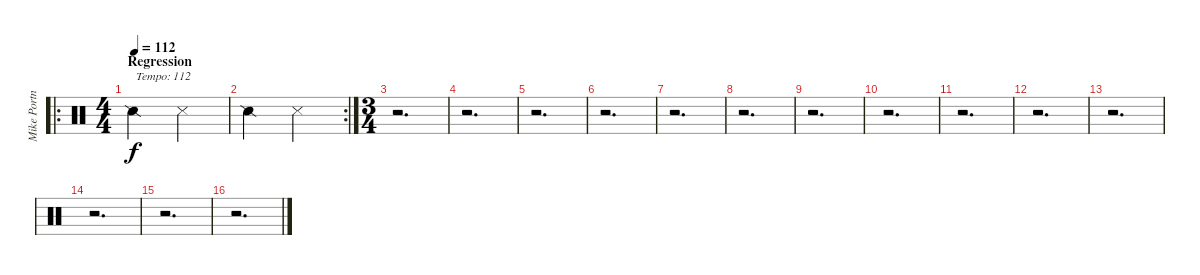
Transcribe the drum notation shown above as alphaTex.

\track ("Mike Portnoy - Drum" "Mike Portn") {instrument percussion}
\staff {score}
\articulation defaults
\ro
\ts (4 4)
\section ("" "Regression")
\tempo 112
\clef neutral
\ks c "Snare (side stick) 2".2{txt "Tempo: 112" dy f} "Metronome (hit)".2
|
\rc 2 "Snare (side stick) 2".2 "Metronome (hit)".2
|
\ts (3 4)
r.2{d} |
r.2{d} |
r.2{d} |
r.2{d} |
r.2{d} |
r.2{d} |
r.2{d} |
r.2{d} |
r.2{d} |
r.2{d} |
r.2{d} |
r.2{d} |
r.2{d} |
r.2{d}
